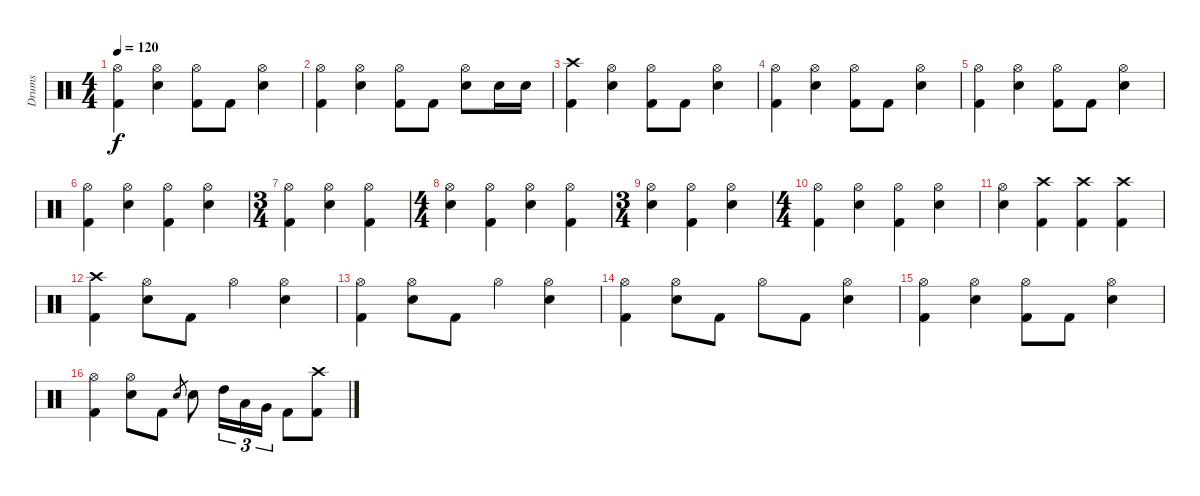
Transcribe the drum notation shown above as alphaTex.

\track ("Drums" "Drums") {instrument percussion}
\staff {score}
\articulation defaults
\ts (4 4)
\tempo 120
\clef neutral
\ks c
("Hi-Hat (open)" "Kick (hit) 2").4{dy f} ("Hi-Hat (open)" "Electric Snare (hit)").4 ("Hi-Hat (open)" "Kick (hit) 2").8 "Kick (hit) 2".8 ("Hi-Hat (open)" "Electric Snare (hit)").4 |
("Hi-Hat (open)" "Kick (hit) 2").4 ("Hi-Hat (open)" "Electric Snare (hit)").4 ("Hi-Hat (open)" "Kick (hit) 2").8 "Kick (hit) 2".8 ("Hi-Hat (open)" "Electric Snare (hit)").8 "Electric Snare (hit)".16 "Electric Snare (hit)".16 |
("Crash high (hit)" "Kick (hit) 2").4 ("Hi-Hat (open)" "Electric Snare (hit)").4 ("Hi-Hat (open)" "Kick (hit) 2").8 "Kick (hit) 2".8 ("Hi-Hat (open)" "Electric Snare (hit)").4 |
("Hi-Hat (open)" "Kick (hit) 2").4 ("Hi-Hat (open)" "Electric Snare (hit)").4 ("Hi-Hat (open)" "Kick (hit) 2").8 "Kick (hit) 2".8 ("Hi-Hat (open)" "Electric Snare (hit)").4 |
("Hi-Hat (open)" "Kick (hit) 2").4 ("Hi-Hat (open)" "Electric Snare (hit)").4 ("Hi-Hat (open)" "Kick (hit) 2").8 "Kick (hit) 2".8 ("Hi-Hat (open)" "Electric Snare (hit)").4 |
("Hi-Hat (open)" "Kick (hit) 2").4 ("Hi-Hat (open)" "Electric Snare (hit)").4 ("Hi-Hat (open)" "Kick (hit) 2").4 ("Hi-Hat (open)" "Electric Snare (hit)").4 |
\ts (3 4)
("Hi-Hat (open)" "Kick (hit) 2").4 ("Hi-Hat (open)" "Electric Snare (hit)").4 ("Hi-Hat (open)" "Kick (hit) 2").4 |
\ts (4 4)
("Hi-Hat (open)" "Electric Snare (hit)").4 ("Hi-Hat (open)" "Kick (hit) 2").4 ("Hi-Hat (open)" "Electric Snare (hit)").4 ("Hi-Hat (open)" "Kick (hit) 2").4 |
\ts (3 4)
("Hi-Hat (open)" "Electric Snare (hit)").4 ("Hi-Hat (open)" "Kick (hit) 2").4 ("Hi-Hat (open)" "Electric Snare (hit)").4 |
\ts (4 4)
("Hi-Hat (open)" "Kick (hit) 2").4 ("Hi-Hat (open)" "Electric Snare (hit)").4 ("Hi-Hat (open)" "Kick (hit) 2").4 ("Hi-Hat (open)" "Electric Snare (hit)").4 |
("Hi-Hat (open)" "Electric Snare (hit)").4 ("Crash high (hit)" "Kick (hit) 2").4 ("Crash high (hit)" "Kick (hit) 2").4 ("Crash high (hit)" "Kick (hit) 2").4 |
("Crash high (hit)" "Kick (hit) 2").4 ("Hi-Hat (open)" "Electric Snare (hit)").8 "Kick (hit) 2".8 "Hi-Hat (open)".4 ("Hi-Hat (open)" "Electric Snare (hit)").4 |
("Hi-Hat (open)" "Kick (hit) 2").4 ("Hi-Hat (open)" "Electric Snare (hit)").8 "Kick (hit) 2".8 "Hi-Hat (open)".4 ("Hi-Hat (open)" "Electric Snare (hit)").4 |
("Hi-Hat (open)" "Kick (hit) 2").4 ("Hi-Hat (open)" "Electric Snare (hit)").8 "Kick (hit) 2".8 "Hi-Hat (open)".8 "Kick (hit) 2".8 ("Hi-Hat (open)" "Electric Snare (hit)").4 |
("Hi-Hat (open)" "Kick (hit) 2").4 ("Hi-Hat (open)" "Electric Snare (hit)").4 ("Hi-Hat (open)" "Kick (hit) 2").8 "Kick (hit) 2".8 ("Hi-Hat (open)" "Electric Snare (hit)").4 |
("Hi-Hat (open)" "Kick (hit) 2").4 ("Hi-Hat (open)" "Electric Snare (hit)").8 "Kick (hit) 2".8 "Electric Snare (hit)".8{gr} "Electric Snare (hit)".8 "High Tom (hit)".16{tu (3 2)} "Low Tom (hit)".16{tu (3 2)} "Very Low Tom (hit)".16{tu (3 2)} "Kick (hit) 2".8 ("Crash high (hit)" "Kick (hit) 2").8
